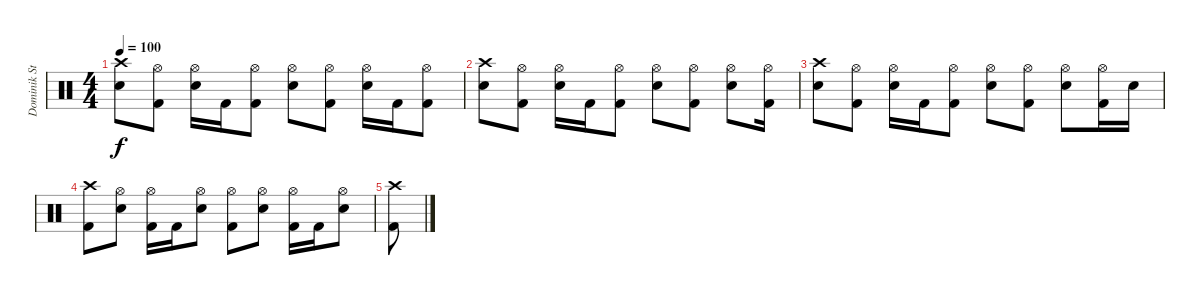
\track ("Dominik Storch" "Dominik St") {instrument percussion}
\staff {score}
\articulation defaults
\ts (4 4)
\tempo 100
\clef neutral
\ks c
("Crash high (hit)" "Snare (hit) 2").8{dy f} ("Hi-Hat (open)" "Kick (hit) 2").8 ("Hi-Hat (open)" "Snare (hit) 2").16 "Kick (hit) 2".16 ("Hi-Hat (open)" "Kick (hit) 2").8 ("Hi-Hat (open)" "Snare (hit) 2").8 ("Hi-Hat (open)" "Kick (hit) 2").8 ("Hi-Hat (open)" "Snare (hit) 2").16 "Kick (hit) 2".16 ("Hi-Hat (open)" "Kick (hit) 2").8 |
("Crash high (hit)" "Snare (hit) 2").8 ("Hi-Hat (open)" "Kick (hit) 2").8 ("Hi-Hat (open)" "Snare (hit) 2").16 "Kick (hit) 2".16 ("Hi-Hat (open)" "Kick (hit) 2").8 ("Hi-Hat (open)" "Snare (hit) 2").8 ("Hi-Hat (open)" "Kick (hit) 2").8 ("Hi-Hat (open)" "Snare (hit) 2").8 ("Hi-Hat (open)" "Kick (hit) 2").16 |
("Crash high (hit)" "Snare (hit) 2").8 ("Hi-Hat (open)" "Kick (hit) 2").8 ("Hi-Hat (open)" "Snare (hit) 2").16 "Kick (hit) 2".16 ("Hi-Hat (open)" "Kick (hit) 2").8 ("Hi-Hat (open)" "Snare (hit) 2").8 ("Hi-Hat (open)" "Kick (hit) 2").8 ("Hi-Hat (open)" "Snare (hit) 2").8 ("Hi-Hat (open)" "Kick (hit) 2").16 "Snare (hit) 2".16 |
("Crash high (hit)" "Kick (hit) 2").8 ("Hi-Hat (open)" "Snare (hit) 2").8 ("Hi-Hat (open)" "Kick (hit) 2").16 "Kick (hit) 2".16 ("Hi-Hat (open)" "Snare (hit) 2").8 ("Hi-Hat (open)" "Kick (hit) 2").8 ("Hi-Hat (open)" "Snare (hit) 2").8 ("Hi-Hat (open)" "Kick (hit) 2").16 "Kick (hit) 2".16 ("Hi-Hat (open)" "Snare (hit) 2").8 |
("Crash high (hit)" "Kick (hit) 2").8
